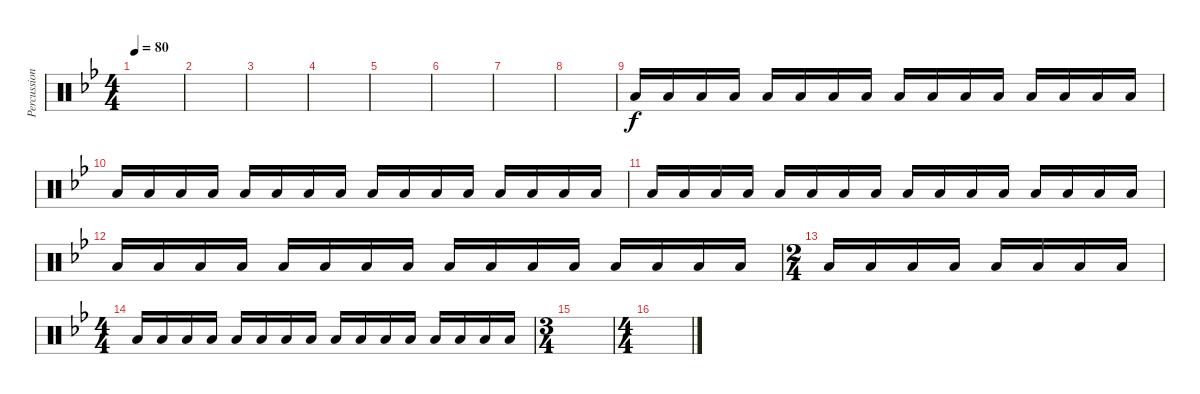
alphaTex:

\track ("Percussion" "Percussion") {instrument percussion}
\staff {score}
\articulation defaults
\ts (4 4)
\tempo 80
\clef neutral
\ks bb
|
|
|
|
|
|
|
|
"Low Floor Tom (hit)".16 "Low Floor Tom (hit)".16 "Low Floor Tom (hit)".16 "Low Floor Tom (hit)".16 "Low Floor Tom (hit)".16 "Low Floor Tom (hit)".16 "Low Floor Tom (hit)".16 "Low Floor Tom (hit)".16 "Low Floor Tom (hit)".16 "Low Floor Tom (hit)".16 "Low Floor Tom (hit)".16 "Low Floor Tom (hit)".16 "Low Floor Tom (hit)".16 "Low Floor Tom (hit)".16 "Low Floor Tom (hit)".16 "Low Floor Tom (hit)".16 |
"Low Floor Tom (hit)".16 "Low Floor Tom (hit)".16 "Low Floor Tom (hit)".16 "Low Floor Tom (hit)".16 "Low Floor Tom (hit)".16 "Low Floor Tom (hit)".16 "Low Floor Tom (hit)".16 "Low Floor Tom (hit)".16 "Low Floor Tom (hit)".16 "Low Floor Tom (hit)".16 "Low Floor Tom (hit)".16 "Low Floor Tom (hit)".16 "Low Floor Tom (hit)".16 "Low Floor Tom (hit)".16 "Low Floor Tom (hit)".16 "Low Floor Tom (hit)".16 |
"Low Floor Tom (hit)".16 "Low Floor Tom (hit)".16 "Low Floor Tom (hit)".16 "Low Floor Tom (hit)".16 "Low Floor Tom (hit)".16 "Low Floor Tom (hit)".16 "Low Floor Tom (hit)".16 "Low Floor Tom (hit)".16 "Low Floor Tom (hit)".16 "Low Floor Tom (hit)".16 "Low Floor Tom (hit)".16 "Low Floor Tom (hit)".16 "Low Floor Tom (hit)".16 "Low Floor Tom (hit)".16 "Low Floor Tom (hit)".16 "Low Floor Tom (hit)".16 |
"Low Floor Tom (hit)".16 "Low Floor Tom (hit)".16 "Low Floor Tom (hit)".16 "Low Floor Tom (hit)".16 "Low Floor Tom (hit)".16 "Low Floor Tom (hit)".16 "Low Floor Tom (hit)".16 "Low Floor Tom (hit)".16 "Low Floor Tom (hit)".16 "Low Floor Tom (hit)".16 "Low Floor Tom (hit)".16 "Low Floor Tom (hit)".16 "Low Floor Tom (hit)".16 "Low Floor Tom (hit)".16 "Low Floor Tom (hit)".16 "Low Floor Tom (hit)".16 |
\ts (2 4)
"Low Floor Tom (hit)".16 "Low Floor Tom (hit)".16 "Low Floor Tom (hit)".16 "Low Floor Tom (hit)".16 "Low Floor Tom (hit)".16 "Low Floor Tom (hit)".16 "Low Floor Tom (hit)".16 "Low Floor Tom (hit)".16 |
\ts (4 4)
"Low Floor Tom (hit)".16 "Low Floor Tom (hit)".16 "Low Floor Tom (hit)".16 "Low Floor Tom (hit)".16 "Low Floor Tom (hit)".16 "Low Floor Tom (hit)".16 "Low Floor Tom (hit)".16 "Low Floor Tom (hit)".16 "Low Floor Tom (hit)".16 "Low Floor Tom (hit)".16 "Low Floor Tom (hit)".16 "Low Floor Tom (hit)".16 "Low Floor Tom (hit)".16 "Low Floor Tom (hit)".16 "Low Floor Tom (hit)".16 "Low Floor Tom (hit)".16 |
\ts (3 4)
|
\ts (4 4)
